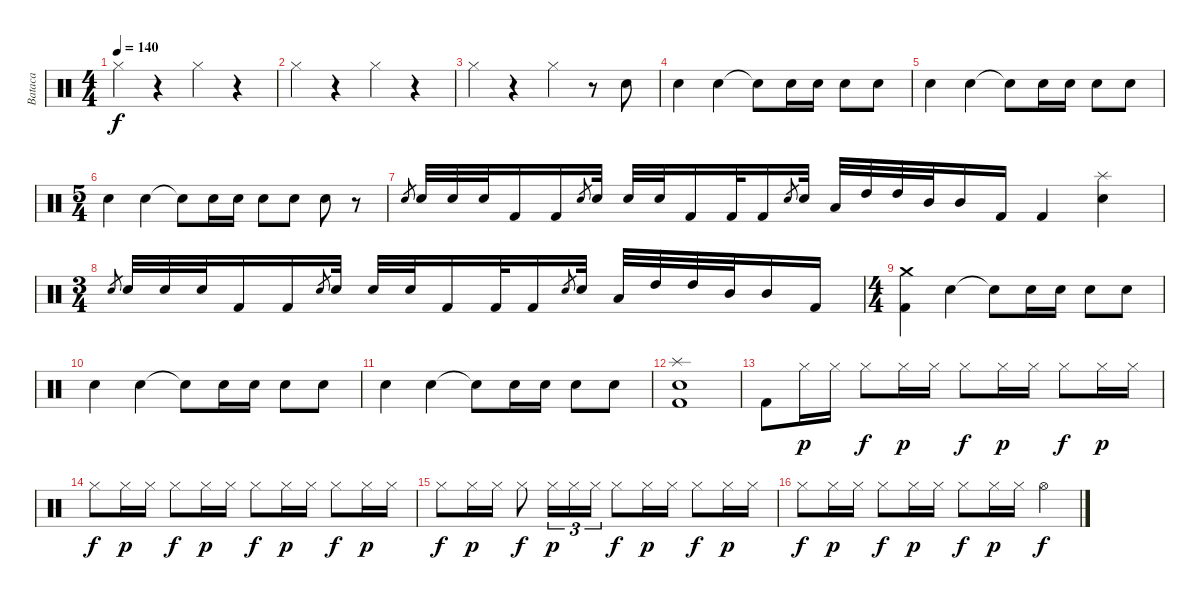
\track ("Bataca" "Bataca") {instrument percussion}
\staff {score}
\articulation defaults
\ts (4 4)
\tempo 140
\clef neutral
\ks c "Hi-Hat (closed)".4{dy f}
r.4 "Hi-Hat (closed)".4 r.4 |
"Hi-Hat (closed)".4 r.4 "Hi-Hat (closed)".4 r.4 |
"Hi-Hat (closed)".4 r.4 "Hi-Hat (closed)".4 r.8 "Electric Snare (hit)".8 |
"Electric Snare (hit)".4 "Electric Snare (hit)".4 "Snare (hit)"{t}.8 "Electric Snare (hit)".16 "Electric Snare (hit)".16 "Electric Snare (hit)".8 "Electric Snare (hit)".8 |
"Electric Snare (hit)".4 "Electric Snare (hit)".4 "Snare (hit)"{t}.8 "Electric Snare (hit)".16 "Electric Snare (hit)".16 "Electric Snare (hit)".8 "Electric Snare (hit)".8 |
\ts (5 4)
"Electric Snare (hit)".4 "Electric Snare (hit)".4 "Snare (hit)"{t}.8 "Electric Snare (hit)".16 "Electric Snare (hit)".16 "Electric Snare (hit)".8 "Electric Snare (hit)".8 "Electric Snare (hit)".8 r.8 |
"Electric Snare (hit)".8{gr} "Electric Snare (hit)".32 "Electric Snare (hit)".32 "Electric Snare (hit)".32 "Kick (hit) 2".16 "Kick (hit) 2".16 "Electric Snare (hit)".8{gr} "Electric Snare (hit)".32 "Electric Snare (hit)".32 "Electric Snare (hit)".32 "Kick (hit) 2".16 "Kick (hit) 2".32 "Kick (hit) 2".16 "Electric Snare (hit)".8{gr} "Electric Snare (hit)".32 "Low Tom (hit)".32 "High Tom (hit)".32 "High Tom (hit)".32 "Mid Tom (hit)".32 "Mid Tom (hit)".16 "Kick (hit) 2".16 "Kick (hit) 2".4 ("Splash (hit)" "Electric Snare (hit)").4 |
\ts (3 4)
"Electric Snare (hit)".8{gr} "Electric Snare (hit)".32 "Electric Snare (hit)".32 "Electric Snare (hit)".32 "Kick (hit) 2".16 "Kick (hit) 2".16 "Electric Snare (hit)".8{gr} "Electric Snare (hit)".32 "Electric Snare (hit)".32 "Electric Snare (hit)".32 "Kick (hit) 2".16 "Kick (hit) 2".32 "Kick (hit) 2".16 "Electric Snare (hit)".8{gr} "Electric Snare (hit)".32 "Low Tom (hit)".32 "High Tom (hit)".32 "High Tom (hit)".32 "Mid Tom (hit)".32 "Mid Tom (hit)".16 "Kick (hit) 2".16 |
\ts (4 4)
("Crash medium (hit)" "Kick (hit) 2").4 "Electric Snare (hit)".4 "Snare (hit)"{t}.8 "Electric Snare (hit)".16 "Electric Snare (hit)".16 "Electric Snare (hit)".8 "Electric Snare (hit)".8 |
"Electric Snare (hit)".4 "Electric Snare (hit)".4 "Snare (hit)"{t}.8 "Electric Snare (hit)".16 "Electric Snare (hit)".16 "Electric Snare (hit)".8 "Electric Snare (hit)".8 |
"Electric Snare (hit)".4 "Electric Snare (hit)".4 "Snare (hit)"{t}.8 "Electric Snare (hit)".16 "Electric Snare (hit)".16 "Electric Snare (hit)".8 "Electric Snare (hit)".8 |
("Splash (hit)" "Electric Snare (hit)" "Kick (hit) 2").1 |
"Kick (hit) 2".8 "Hi-Hat (closed)".16{dy p} "Hi-Hat (closed)".16 "Hi-Hat (closed)".8{dy f} "Hi-Hat (closed)".16{dy p} "Hi-Hat (closed)".16 "Hi-Hat (closed)".8{dy f} "Hi-Hat (closed)".16{dy p} "Hi-Hat (closed)".16 "Hi-Hat (closed)".8{dy f} "Hi-Hat (closed)".16{dy p} "Hi-Hat (closed)".16 |
"Hi-Hat (closed)".8{dy f} "Hi-Hat (closed)".16{dy p} "Hi-Hat (closed)".16 "Hi-Hat (closed)".8{dy f} "Hi-Hat (closed)".16{dy p} "Hi-Hat (closed)".16 "Hi-Hat (closed)".8{dy f} "Hi-Hat (closed)".16{dy p} "Hi-Hat (closed)".16 "Hi-Hat (closed)".8{dy f} "Hi-Hat (closed)".16{dy p} "Hi-Hat (closed)".16 |
"Hi-Hat (closed)".8{dy f} "Hi-Hat (closed)".16{dy p} "Hi-Hat (closed)".16 "Hi-Hat (closed)".8{dy f} "Hi-Hat (closed)".16{tu (3 2) dy p} "Hi-Hat (closed)".16{tu (3 2)} "Hi-Hat (closed)".16{tu (3 2)} "Hi-Hat (closed)".8{dy f} "Hi-Hat (closed)".16{dy p} "Hi-Hat (closed)".16 "Hi-Hat (closed)".8{dy f} "Hi-Hat (closed)".16{dy p} "Hi-Hat (closed)".16 |
"Hi-Hat (closed)".8{dy f} "Hi-Hat (closed)".16{dy p} "Hi-Hat (closed)".16 "Hi-Hat (closed)".8{dy f} "Hi-Hat (closed)".16{dy p} "Hi-Hat (closed)".16 "Hi-Hat (closed)".8{dy f} "Hi-Hat (closed)".16{dy p} "Hi-Hat (closed)".16 "Hi-Hat (open)".4{dy f}
